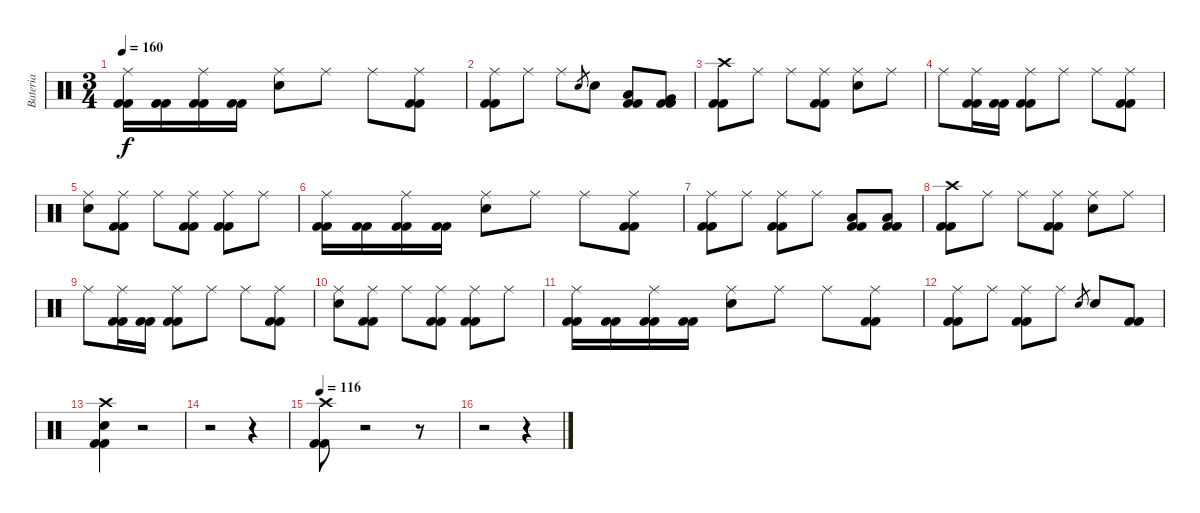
\track ("Bateria" "Bateria") {instrument percussion}
\staff {score}
\articulation defaults
\ts (3 4)
\tempo 160
\clef neutral
\ks c
("Kick (hit) 2" "Kick (hit) 2" "Ride (middle)").16{dy f} ("Kick (hit) 2" "Kick (hit) 2").16 ("Kick (hit) 2" "Kick (hit) 2" "Ride (middle)").16 ("Kick (hit) 2" "Kick (hit) 2").16 ("Snare (hit) 2" "Ride (middle)").8 "Ride (middle)".8 "Ride (middle)".8 ("Kick (hit) 2" "Kick (hit) 2" "Ride (middle)").8 |
("Kick (hit) 2" "Kick (hit) 2" "Ride (middle)").8 "Ride (middle)".8 "Ride (middle)".8 "Snare (hit) 2".8{gr} "Snare (hit) 2".8 ("Kick (hit) 2" "Kick (hit) 2" "Low Tom (hit)").8 ("Kick (hit) 2" "Kick (hit) 2" "Very Low Tom (hit)").8 |
("Kick (hit) 2" "Kick (hit) 2" "Crash high (hit)").8 "Ride (middle)".8 "Ride (middle)".8 ("Kick (hit) 2" "Kick (hit) 2" "Ride (middle)").8 ("Snare (hit) 2" "Ride (middle)").8 "Ride (middle)".8 |
"Ride (middle)".8 ("Kick (hit) 2" "Kick (hit) 2" "Ride (middle)").16 ("Kick (hit) 2" "Kick (hit) 2").16 ("Kick (hit) 2" "Kick (hit) 2" "Ride (middle)").8 "Ride (middle)".8 "Ride (middle)".8 ("Kick (hit) 2" "Kick (hit) 2" "Ride (middle)").8 |
("Snare (hit) 2" "Ride (middle)").8 ("Kick (hit) 2" "Kick (hit) 2" "Ride (middle)").8 "Ride (middle)".8 ("Kick (hit) 2" "Kick (hit) 2" "Ride (middle)").8 ("Kick (hit) 2" "Kick (hit) 2" "Ride (middle)").8 "Ride (middle)".8 |
("Kick (hit) 2" "Kick (hit) 2" "Ride (middle)").16 ("Kick (hit) 2" "Kick (hit) 2").16 ("Kick (hit) 2" "Kick (hit) 2" "Ride (middle)").16 ("Kick (hit) 2" "Kick (hit) 2").16 ("Snare (hit) 2" "Ride (middle)").8 "Ride (middle)".8 "Ride (middle)".8 ("Kick (hit) 2" "Kick (hit) 2" "Ride (middle)").8 |
("Kick (hit) 2" "Kick (hit) 2" "Ride (middle)").8 "Ride (middle)".8 ("Kick (hit) 2" "Kick (hit) 2" "Ride (middle)").8 "Ride (middle)".8 ("Kick (hit) 2" "Kick (hit) 2" "Low Tom (hit)").8 ("Kick (hit) 2" "Kick (hit) 2" "Low Tom (hit)").8 |
("Kick (hit) 2" "Kick (hit) 2" "Crash high (hit)").8 "Ride (middle)".8 "Ride (middle)".8 ("Kick (hit) 2" "Kick (hit) 2" "Ride (middle)").8 ("Snare (hit) 2" "Ride (middle)").8 "Ride (middle)".8 |
"Ride (middle)".8 ("Kick (hit) 2" "Kick (hit) 2" "Ride (middle)").16 ("Kick (hit) 2" "Kick (hit) 2").16 ("Kick (hit) 2" "Kick (hit) 2" "Ride (middle)").8 "Ride (middle)".8 "Ride (middle)".8 ("Kick (hit) 2" "Kick (hit) 2" "Ride (middle)").8 |
("Snare (hit) 2" "Ride (middle)").8 ("Kick (hit) 2" "Kick (hit) 2" "Ride (middle)").8 "Ride (middle)".8 ("Kick (hit) 2" "Kick (hit) 2" "Ride (middle)").8 ("Kick (hit) 2" "Kick (hit) 2" "Ride (middle)").8 "Ride (middle)".8 |
("Kick (hit) 2" "Kick (hit) 2" "Ride (middle)").16 ("Kick (hit) 2" "Kick (hit) 2").16 ("Kick (hit) 2" "Kick (hit) 2" "Ride (middle)").16 ("Kick (hit) 2" "Kick (hit) 2").16 ("Snare (hit) 2" "Ride (middle)").8 "Ride (middle)".8 "Ride (middle)".8 ("Kick (hit) 2" "Kick (hit) 2" "Ride (middle)").8 |
("Kick (hit) 2" "Kick (hit) 2" "Ride (middle)").8 "Ride (middle)".8 ("Kick (hit) 2" "Kick (hit) 2" "Ride (middle)").8 "Ride (middle)".8 "Snare (hit) 2".8{gr} "Snare (hit) 2".8 ("Kick (hit) 2" "Kick (hit) 2").8 |
("Kick (hit) 2" "Kick (hit) 2" "Snare (hit) 2" "Crash high (hit)").4 r.2 |
r.2 r.4 |
\tempo 116
("Kick (hit) 2" "Kick (hit) 2" "Crash high (hit)").8 r.2 r.8 |
r.2 r.4
